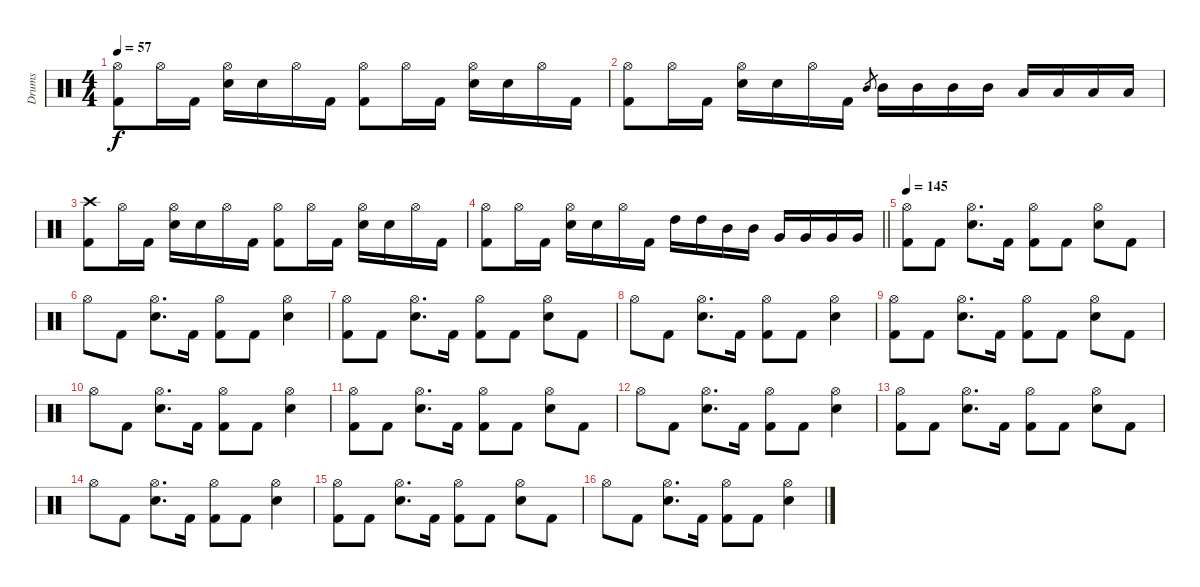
\track ("Drums" "Drums") {instrument percussion}
\staff {score}
\articulation defaults
\ts (4 4)
\tempo 57
\clef neutral
\ks c
("Hi-Hat (open)" "Kick (hit) 2").8{dy f} "Hi-Hat (open)".16 "Kick (hit) 2".16 ("Hi-Hat (open)" "Electric Snare (hit)").16 "Electric Snare (hit)".16 "Hi-Hat (open)".16 "Kick (hit) 2".16 ("Hi-Hat (open)" "Kick (hit) 2").8 "Hi-Hat (open)".16 "Kick (hit) 2".16 ("Hi-Hat (open)" "Electric Snare (hit)").16 "Electric Snare (hit)".16 "Hi-Hat (open)".16 "Kick (hit) 2".16 |
("Hi-Hat (open)" "Kick (hit) 2").8 "Hi-Hat (open)".16 "Kick (hit) 2".16 ("Hi-Hat (open)" "Electric Snare (hit)").16 "Electric Snare (hit)".16 "Hi-Hat (open)".16 "Kick (hit) 2".16 "Mid Tom (hit)".8{gr} "Mid Tom (hit)".16 "Mid Tom (hit)".16 "Mid Tom (hit)".16 "Mid Tom (hit)".16 "Low Tom (hit)".16 "Low Tom (hit)".16 "Low Tom (hit)".16 "Low Tom (hit)".16 |
("Crash high (hit)" "Kick (hit) 2").8 "Hi-Hat (open)".16 "Kick (hit) 2".16 ("Hi-Hat (open)" "Electric Snare (hit)").16 "Electric Snare (hit)".16 "Hi-Hat (open)".16 "Kick (hit) 2".16 ("Hi-Hat (open)" "Kick (hit) 2").8 "Hi-Hat (open)".16 "Kick (hit) 2".16 ("Hi-Hat (open)" "Electric Snare (hit)").16 "Electric Snare (hit)".16 "Hi-Hat (open)".16 "Kick (hit) 2".16 |
\barLineRight lightlight
("Hi-Hat (open)" "Kick (hit) 2").8 "Hi-Hat (open)".16 "Kick (hit) 2".16 ("Hi-Hat (open)" "Electric Snare (hit)").16 "Electric Snare (hit)".16 "Hi-Hat (open)".16 "Kick (hit) 2".16 "High Tom (hit)".16 "High Tom (hit)".16 "Mid Tom (hit)".16 "Mid Tom (hit)".16 "Very Low Tom (hit)".16 "Very Low Tom (hit)".16 "Very Low Tom (hit)".16 "Very Low Tom (hit)".16 |
\tempo 145
("Hi-Hat (open)" "Kick (hit) 2").8 "Kick (hit) 2".8 ("Hi-Hat (open)" "Electric Snare (hit)").8{d} "Kick (hit) 2".16 ("Hi-Hat (open)" "Kick (hit) 2").8 "Kick (hit) 2".8 ("Hi-Hat (open)" "Electric Snare (hit)").8 "Kick (hit) 2".8 |
"Hi-Hat (open)".8 "Kick (hit) 2".8 ("Hi-Hat (open)" "Electric Snare (hit)").8{d} "Kick (hit) 2".16 ("Hi-Hat (open)" "Kick (hit) 2").8 "Kick (hit) 2".8 ("Hi-Hat (open)" "Electric Snare (hit)").4 |
("Hi-Hat (open)" "Kick (hit) 2").8 "Kick (hit) 2".8 ("Hi-Hat (open)" "Electric Snare (hit)").8{d} "Kick (hit) 2".16 ("Hi-Hat (open)" "Kick (hit) 2").8 "Kick (hit) 2".8 ("Hi-Hat (open)" "Electric Snare (hit)").8 "Kick (hit) 2".8 |
"Hi-Hat (open)".8 "Kick (hit) 2".8 ("Hi-Hat (open)" "Electric Snare (hit)").8{d} "Kick (hit) 2".16 ("Hi-Hat (open)" "Kick (hit) 2").8 "Kick (hit) 2".8 ("Hi-Hat (open)" "Electric Snare (hit)").4 |
("Hi-Hat (open)" "Kick (hit) 2").8 "Kick (hit) 2".8 ("Hi-Hat (open)" "Electric Snare (hit)").8{d} "Kick (hit) 2".16 ("Hi-Hat (open)" "Kick (hit) 2").8 "Kick (hit) 2".8 ("Hi-Hat (open)" "Electric Snare (hit)").8 "Kick (hit) 2".8 |
"Hi-Hat (open)".8 "Kick (hit) 2".8 ("Hi-Hat (open)" "Electric Snare (hit)").8{d} "Kick (hit) 2".16 ("Hi-Hat (open)" "Kick (hit) 2").8 "Kick (hit) 2".8 ("Hi-Hat (open)" "Electric Snare (hit)").4 |
("Hi-Hat (open)" "Kick (hit) 2").8 "Kick (hit) 2".8 ("Hi-Hat (open)" "Electric Snare (hit)").8{d} "Kick (hit) 2".16 ("Hi-Hat (open)" "Kick (hit) 2").8 "Kick (hit) 2".8 ("Hi-Hat (open)" "Electric Snare (hit)").8 "Kick (hit) 2".8 |
"Hi-Hat (open)".8 "Kick (hit) 2".8 ("Hi-Hat (open)" "Electric Snare (hit)").8{d} "Kick (hit) 2".16 ("Hi-Hat (open)" "Kick (hit) 2").8 "Kick (hit) 2".8 ("Hi-Hat (open)" "Electric Snare (hit)").4 |
("Hi-Hat (open)" "Kick (hit) 2").8 "Kick (hit) 2".8 ("Hi-Hat (open)" "Electric Snare (hit)").8{d} "Kick (hit) 2".16 ("Hi-Hat (open)" "Kick (hit) 2").8 "Kick (hit) 2".8 ("Hi-Hat (open)" "Electric Snare (hit)").8 "Kick (hit) 2".8 |
"Hi-Hat (open)".8 "Kick (hit) 2".8 ("Hi-Hat (open)" "Electric Snare (hit)").8{d} "Kick (hit) 2".16 ("Hi-Hat (open)" "Kick (hit) 2").8 "Kick (hit) 2".8 ("Hi-Hat (open)" "Electric Snare (hit)").4 |
("Hi-Hat (open)" "Kick (hit) 2").8 "Kick (hit) 2".8 ("Hi-Hat (open)" "Electric Snare (hit)").8{d} "Kick (hit) 2".16 ("Hi-Hat (open)" "Kick (hit) 2").8 "Kick (hit) 2".8 ("Hi-Hat (open)" "Electric Snare (hit)").8 "Kick (hit) 2".8 |
"Hi-Hat (open)".8 "Kick (hit) 2".8 ("Hi-Hat (open)" "Electric Snare (hit)").8{d} "Kick (hit) 2".16 ("Hi-Hat (open)" "Kick (hit) 2").8 "Kick (hit) 2".8 ("Hi-Hat (open)" "Electric Snare (hit)").4
